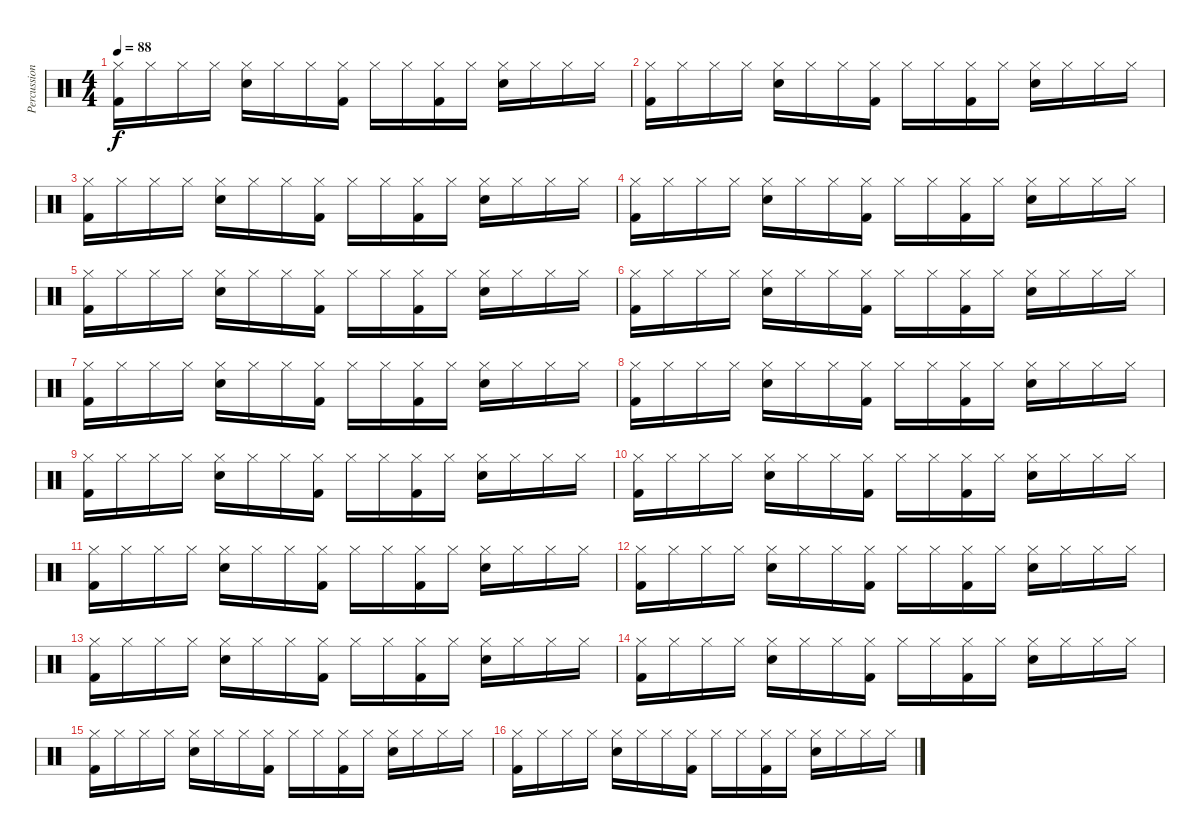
\track ("Percussion" "Percussion") {instrument percussion}
\staff {score}
\articulation defaults
\ts (4 4)
\tempo 88
\clef neutral
\ks c
("Hi-Hat (closed)" "Kick (hit) 2").16{dy f} "Hi-Hat (closed)".16 "Hi-Hat (closed)".16 "Hi-Hat (closed)".16 ("Hi-Hat (closed)" "Electric Snare (hit)").16 "Hi-Hat (closed)".16 "Hi-Hat (closed)".16 ("Hi-Hat (closed)" "Kick (hit) 2").16 "Hi-Hat (closed)".16 "Hi-Hat (closed)".16 ("Hi-Hat (closed)" "Kick (hit) 2").16 "Hi-Hat (closed)".16 ("Hi-Hat (closed)" "Electric Snare (hit)").16 "Hi-Hat (closed)".16 "Hi-Hat (closed)".16 "Hi-Hat (closed)".16 |
("Hi-Hat (closed)" "Kick (hit) 2").16 "Hi-Hat (closed)".16 "Hi-Hat (closed)".16 "Hi-Hat (closed)".16 ("Hi-Hat (closed)" "Electric Snare (hit)").16 "Hi-Hat (closed)".16 "Hi-Hat (closed)".16 ("Hi-Hat (closed)" "Kick (hit) 2").16 "Hi-Hat (closed)".16 "Hi-Hat (closed)".16 ("Hi-Hat (closed)" "Kick (hit) 2").16 "Hi-Hat (closed)".16 ("Hi-Hat (closed)" "Electric Snare (hit)").16 "Hi-Hat (closed)".16 "Hi-Hat (closed)".16 "Hi-Hat (closed)".16 |
("Hi-Hat (closed)" "Kick (hit) 2").16 "Hi-Hat (closed)".16 "Hi-Hat (closed)".16 "Hi-Hat (closed)".16 ("Hi-Hat (closed)" "Electric Snare (hit)").16 "Hi-Hat (closed)".16 "Hi-Hat (closed)".16 ("Hi-Hat (closed)" "Kick (hit) 2").16 "Hi-Hat (closed)".16 "Hi-Hat (closed)".16 ("Hi-Hat (closed)" "Kick (hit) 2").16 "Hi-Hat (closed)".16 ("Hi-Hat (closed)" "Electric Snare (hit)").16 "Hi-Hat (closed)".16 "Hi-Hat (closed)".16 "Hi-Hat (closed)".16 |
("Hi-Hat (closed)" "Kick (hit) 2").16 "Hi-Hat (closed)".16 "Hi-Hat (closed)".16 "Hi-Hat (closed)".16 ("Hi-Hat (closed)" "Electric Snare (hit)").16 "Hi-Hat (closed)".16 "Hi-Hat (closed)".16 ("Hi-Hat (closed)" "Kick (hit) 2").16 "Hi-Hat (closed)".16 "Hi-Hat (closed)".16 ("Hi-Hat (closed)" "Kick (hit) 2").16 "Hi-Hat (closed)".16 ("Hi-Hat (closed)" "Electric Snare (hit)").16 "Hi-Hat (closed)".16 "Hi-Hat (closed)".16 "Hi-Hat (closed)".16 |
("Hi-Hat (closed)" "Kick (hit) 2").16 "Hi-Hat (closed)".16 "Hi-Hat (closed)".16 "Hi-Hat (closed)".16 ("Hi-Hat (closed)" "Electric Snare (hit)").16 "Hi-Hat (closed)".16 "Hi-Hat (closed)".16 ("Hi-Hat (closed)" "Kick (hit) 2").16 "Hi-Hat (closed)".16 "Hi-Hat (closed)".16 ("Hi-Hat (closed)" "Kick (hit) 2").16 "Hi-Hat (closed)".16 ("Hi-Hat (closed)" "Electric Snare (hit)").16 "Hi-Hat (closed)".16 "Hi-Hat (closed)".16 "Hi-Hat (closed)".16 |
("Hi-Hat (closed)" "Kick (hit) 2").16 "Hi-Hat (closed)".16 "Hi-Hat (closed)".16 "Hi-Hat (closed)".16 ("Hi-Hat (closed)" "Electric Snare (hit)").16 "Hi-Hat (closed)".16 "Hi-Hat (closed)".16 ("Hi-Hat (closed)" "Kick (hit) 2").16 "Hi-Hat (closed)".16 "Hi-Hat (closed)".16 ("Hi-Hat (closed)" "Kick (hit) 2").16 "Hi-Hat (closed)".16 ("Hi-Hat (closed)" "Electric Snare (hit)").16 "Hi-Hat (closed)".16 "Hi-Hat (closed)".16 "Hi-Hat (closed)".16 |
("Hi-Hat (closed)" "Kick (hit) 2").16 "Hi-Hat (closed)".16 "Hi-Hat (closed)".16 "Hi-Hat (closed)".16 ("Hi-Hat (closed)" "Electric Snare (hit)").16 "Hi-Hat (closed)".16 "Hi-Hat (closed)".16 ("Hi-Hat (closed)" "Kick (hit) 2").16 "Hi-Hat (closed)".16 "Hi-Hat (closed)".16 ("Hi-Hat (closed)" "Kick (hit) 2").16 "Hi-Hat (closed)".16 ("Hi-Hat (closed)" "Electric Snare (hit)").16 "Hi-Hat (closed)".16 "Hi-Hat (closed)".16 "Hi-Hat (closed)".16 |
("Hi-Hat (closed)" "Kick (hit) 2").16 "Hi-Hat (closed)".16 "Hi-Hat (closed)".16 "Hi-Hat (closed)".16 ("Hi-Hat (closed)" "Electric Snare (hit)").16 "Hi-Hat (closed)".16 "Hi-Hat (closed)".16 ("Hi-Hat (closed)" "Kick (hit) 2").16 "Hi-Hat (closed)".16 "Hi-Hat (closed)".16 ("Hi-Hat (closed)" "Kick (hit) 2").16 "Hi-Hat (closed)".16 ("Hi-Hat (closed)" "Electric Snare (hit)").16 "Hi-Hat (closed)".16 "Hi-Hat (closed)".16 "Hi-Hat (closed)".16 |
("Hi-Hat (closed)" "Kick (hit) 2").16 "Hi-Hat (closed)".16 "Hi-Hat (closed)".16 "Hi-Hat (closed)".16 ("Hi-Hat (closed)" "Electric Snare (hit)").16 "Hi-Hat (closed)".16 "Hi-Hat (closed)".16 ("Hi-Hat (closed)" "Kick (hit) 2").16 "Hi-Hat (closed)".16 "Hi-Hat (closed)".16 ("Hi-Hat (closed)" "Kick (hit) 2").16 "Hi-Hat (closed)".16 ("Hi-Hat (closed)" "Electric Snare (hit)").16 "Hi-Hat (closed)".16 "Hi-Hat (closed)".16 "Hi-Hat (closed)".16 |
("Hi-Hat (closed)" "Kick (hit) 2").16 "Hi-Hat (closed)".16 "Hi-Hat (closed)".16 "Hi-Hat (closed)".16 ("Hi-Hat (closed)" "Electric Snare (hit)").16 "Hi-Hat (closed)".16 "Hi-Hat (closed)".16 ("Hi-Hat (closed)" "Kick (hit) 2").16 "Hi-Hat (closed)".16 "Hi-Hat (closed)".16 ("Hi-Hat (closed)" "Kick (hit) 2").16 "Hi-Hat (closed)".16 ("Hi-Hat (closed)" "Electric Snare (hit)").16 "Hi-Hat (closed)".16 "Hi-Hat (closed)".16 "Hi-Hat (closed)".16 |
("Hi-Hat (closed)" "Kick (hit) 2").16 "Hi-Hat (closed)".16 "Hi-Hat (closed)".16 "Hi-Hat (closed)".16 ("Hi-Hat (closed)" "Electric Snare (hit)").16 "Hi-Hat (closed)".16 "Hi-Hat (closed)".16 ("Hi-Hat (closed)" "Kick (hit) 2").16 "Hi-Hat (closed)".16 "Hi-Hat (closed)".16 ("Hi-Hat (closed)" "Kick (hit) 2").16 "Hi-Hat (closed)".16 ("Hi-Hat (closed)" "Electric Snare (hit)").16 "Hi-Hat (closed)".16 "Hi-Hat (closed)".16 "Hi-Hat (closed)".16 |
("Hi-Hat (closed)" "Kick (hit) 2").16 "Hi-Hat (closed)".16 "Hi-Hat (closed)".16 "Hi-Hat (closed)".16 ("Hi-Hat (closed)" "Electric Snare (hit)").16 "Hi-Hat (closed)".16 "Hi-Hat (closed)".16 ("Hi-Hat (closed)" "Kick (hit) 2").16 "Hi-Hat (closed)".16 "Hi-Hat (closed)".16 ("Hi-Hat (closed)" "Kick (hit) 2").16 "Hi-Hat (closed)".16 ("Hi-Hat (closed)" "Electric Snare (hit)").16 "Hi-Hat (closed)".16 "Hi-Hat (closed)".16 "Hi-Hat (closed)".16 |
("Hi-Hat (closed)" "Kick (hit) 2").16 "Hi-Hat (closed)".16 "Hi-Hat (closed)".16 "Hi-Hat (closed)".16 ("Hi-Hat (closed)" "Electric Snare (hit)").16 "Hi-Hat (closed)".16 "Hi-Hat (closed)".16 ("Hi-Hat (closed)" "Kick (hit) 2").16 "Hi-Hat (closed)".16 "Hi-Hat (closed)".16 ("Hi-Hat (closed)" "Kick (hit) 2").16 "Hi-Hat (closed)".16 ("Hi-Hat (closed)" "Electric Snare (hit)").16 "Hi-Hat (closed)".16 "Hi-Hat (closed)".16 "Hi-Hat (closed)".16 |
("Hi-Hat (closed)" "Kick (hit) 2").16 "Hi-Hat (closed)".16 "Hi-Hat (closed)".16 "Hi-Hat (closed)".16 ("Hi-Hat (closed)" "Electric Snare (hit)").16 "Hi-Hat (closed)".16 "Hi-Hat (closed)".16 ("Hi-Hat (closed)" "Kick (hit) 2").16 "Hi-Hat (closed)".16 "Hi-Hat (closed)".16 ("Hi-Hat (closed)" "Kick (hit) 2").16 "Hi-Hat (closed)".16 ("Hi-Hat (closed)" "Electric Snare (hit)").16 "Hi-Hat (closed)".16 "Hi-Hat (closed)".16 "Hi-Hat (closed)".16 |
("Hi-Hat (closed)" "Kick (hit) 2").16 "Hi-Hat (closed)".16 "Hi-Hat (closed)".16 "Hi-Hat (closed)".16 ("Hi-Hat (closed)" "Electric Snare (hit)").16 "Hi-Hat (closed)".16 "Hi-Hat (closed)".16 ("Hi-Hat (closed)" "Kick (hit) 2").16 "Hi-Hat (closed)".16 "Hi-Hat (closed)".16 ("Hi-Hat (closed)" "Kick (hit) 2").16 "Hi-Hat (closed)".16 ("Hi-Hat (closed)" "Electric Snare (hit)").16 "Hi-Hat (closed)".16 "Hi-Hat (closed)".16 "Hi-Hat (closed)".16 |
("Hi-Hat (closed)" "Kick (hit) 2").16 "Hi-Hat (closed)".16 "Hi-Hat (closed)".16 "Hi-Hat (closed)".16 ("Hi-Hat (closed)" "Electric Snare (hit)").16 "Hi-Hat (closed)".16 "Hi-Hat (closed)".16 ("Hi-Hat (closed)" "Kick (hit) 2").16 "Hi-Hat (closed)".16 "Hi-Hat (closed)".16 ("Hi-Hat (closed)" "Kick (hit) 2").16 "Hi-Hat (closed)".16 ("Hi-Hat (closed)" "Electric Snare (hit)").16 "Hi-Hat (closed)".16 "Hi-Hat (closed)".16 "Hi-Hat (closed)".16
